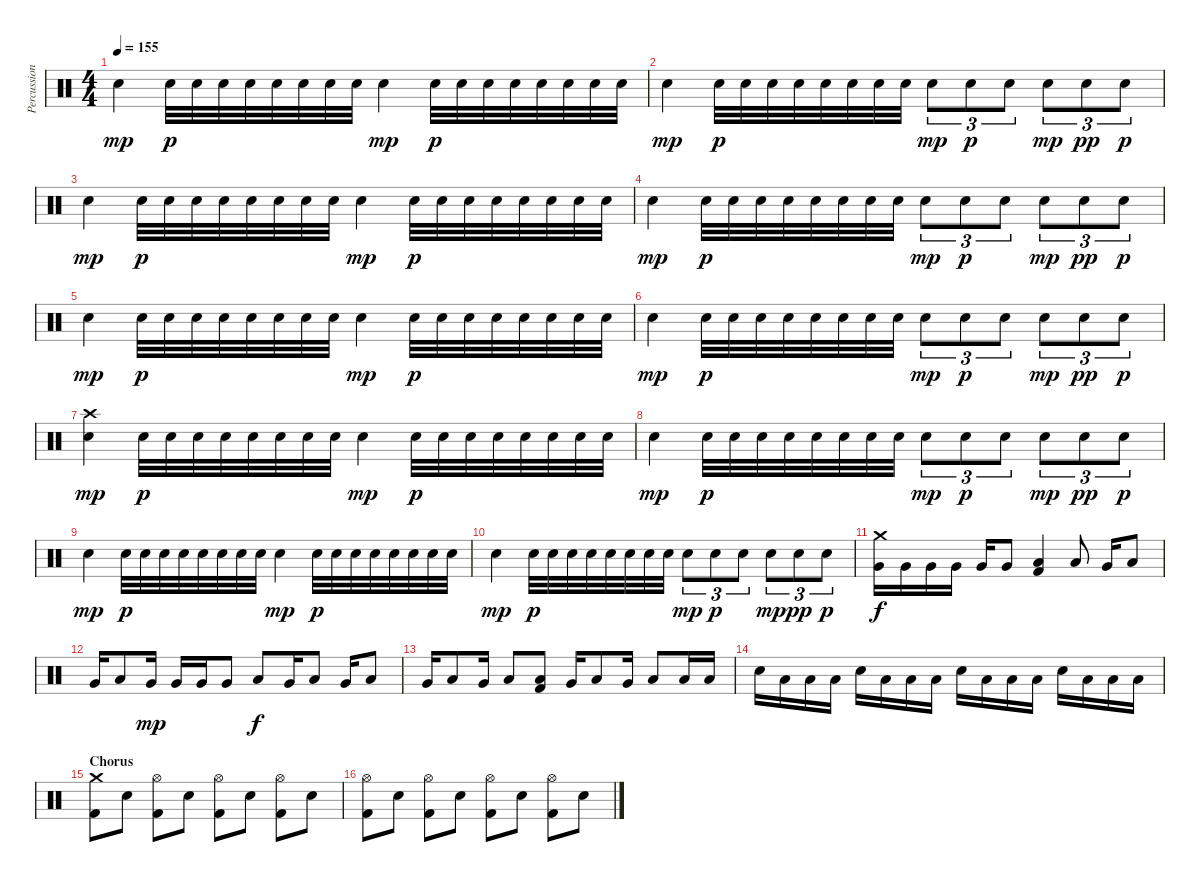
\track ("Percussion" "Percussion") {instrument percussion}
\staff {score}
\articulation defaults
\ts (4 4)
\tempo 155
\clef neutral
\ks c "Electric Snare (hit)".4{dy mp} "Electric Snare (hit)".32{dy p} "Electric Snare (hit)".32 "Electric Snare (hit)".32 "Electric Snare (hit)".32 "Electric Snare (hit)".32 "Electric Snare (hit)".32 "Electric Snare (hit)".32 "Electric Snare (hit)".32 "Electric Snare (hit)".4{dy mp} "Electric Snare (hit)".32{dy p} "Electric Snare (hit)".32 "Electric Snare (hit)".32 "Electric Snare (hit)".32 "Electric Snare (hit)".32 "Electric Snare (hit)".32 "Electric Snare (hit)".32 "Electric Snare (hit)".32
|
"Electric Snare (hit)".4{dy mp} "Electric Snare (hit)".32{dy p} "Electric Snare (hit)".32 "Electric Snare (hit)".32 "Electric Snare (hit)".32 "Electric Snare (hit)".32 "Electric Snare (hit)".32 "Electric Snare (hit)".32 "Electric Snare (hit)".32 "Electric Snare (hit)".8{tu (3 2) dy mp} "Electric Snare (hit)".8{tu (3 2) dy p} "Electric Snare (hit)".8{tu (3 2)} "Electric Snare (hit)".8{tu (3 2) dy mp} "Electric Snare (hit)".8{tu (3 2) dy pp} "Electric Snare (hit)".8{tu (3 2) dy p} |
"Electric Snare (hit)".4{dy mp} "Electric Snare (hit)".32{dy p} "Electric Snare (hit)".32 "Electric Snare (hit)".32 "Electric Snare (hit)".32 "Electric Snare (hit)".32 "Electric Snare (hit)".32 "Electric Snare (hit)".32 "Electric Snare (hit)".32 "Electric Snare (hit)".4{dy mp} "Electric Snare (hit)".32{dy p} "Electric Snare (hit)".32 "Electric Snare (hit)".32 "Electric Snare (hit)".32 "Electric Snare (hit)".32 "Electric Snare (hit)".32 "Electric Snare (hit)".32 "Electric Snare (hit)".32 |
"Electric Snare (hit)".4{dy mp} "Electric Snare (hit)".32{dy p} "Electric Snare (hit)".32 "Electric Snare (hit)".32 "Electric Snare (hit)".32 "Electric Snare (hit)".32 "Electric Snare (hit)".32 "Electric Snare (hit)".32 "Electric Snare (hit)".32 "Electric Snare (hit)".8{tu (3 2) dy mp} "Electric Snare (hit)".8{tu (3 2) dy p} "Electric Snare (hit)".8{tu (3 2)} "Electric Snare (hit)".8{tu (3 2) dy mp} "Electric Snare (hit)".8{tu (3 2) dy pp} "Electric Snare (hit)".8{tu (3 2) dy p} |
"Electric Snare (hit)".4{dy mp} "Electric Snare (hit)".32{dy p} "Electric Snare (hit)".32 "Electric Snare (hit)".32 "Electric Snare (hit)".32 "Electric Snare (hit)".32 "Electric Snare (hit)".32 "Electric Snare (hit)".32 "Electric Snare (hit)".32 "Electric Snare (hit)".4{dy mp} "Electric Snare (hit)".32{dy p} "Electric Snare (hit)".32 "Electric Snare (hit)".32 "Electric Snare (hit)".32 "Electric Snare (hit)".32 "Electric Snare (hit)".32 "Electric Snare (hit)".32 "Electric Snare (hit)".32 |
"Electric Snare (hit)".4{dy mp} "Electric Snare (hit)".32{dy p} "Electric Snare (hit)".32 "Electric Snare (hit)".32 "Electric Snare (hit)".32 "Electric Snare (hit)".32 "Electric Snare (hit)".32 "Electric Snare (hit)".32 "Electric Snare (hit)".32 "Electric Snare (hit)".8{tu (3 2) dy mp} "Electric Snare (hit)".8{tu (3 2) dy p} "Electric Snare (hit)".8{tu (3 2)} "Electric Snare (hit)".8{tu (3 2) dy mp} "Electric Snare (hit)".8{tu (3 2) dy pp} "Electric Snare (hit)".8{tu (3 2) dy p} |
("Crash high (hit)" "Electric Snare (hit)").4{dy mp} "Electric Snare (hit)".32{dy p} "Electric Snare (hit)".32 "Electric Snare (hit)".32 "Electric Snare (hit)".32 "Electric Snare (hit)".32 "Electric Snare (hit)".32 "Electric Snare (hit)".32 "Electric Snare (hit)".32 "Electric Snare (hit)".4{dy mp} "Electric Snare (hit)".32{dy p} "Electric Snare (hit)".32 "Electric Snare (hit)".32 "Electric Snare (hit)".32 "Electric Snare (hit)".32 "Electric Snare (hit)".32 "Electric Snare (hit)".32 "Electric Snare (hit)".32 |
"Electric Snare (hit)".4{dy mp} "Electric Snare (hit)".32{dy p} "Electric Snare (hit)".32 "Electric Snare (hit)".32 "Electric Snare (hit)".32 "Electric Snare (hit)".32 "Electric Snare (hit)".32 "Electric Snare (hit)".32 "Electric Snare (hit)".32 "Electric Snare (hit)".8{tu (3 2) dy mp} "Electric Snare (hit)".8{tu (3 2) dy p} "Electric Snare (hit)".8{tu (3 2)} "Electric Snare (hit)".8{tu (3 2) dy mp} "Electric Snare (hit)".8{tu (3 2) dy pp} "Electric Snare (hit)".8{tu (3 2) dy p} |
"Electric Snare (hit)".4{dy mp} "Electric Snare (hit)".32{dy p} "Electric Snare (hit)".32 "Electric Snare (hit)".32 "Electric Snare (hit)".32 "Electric Snare (hit)".32 "Electric Snare (hit)".32 "Electric Snare (hit)".32 "Electric Snare (hit)".32 "Electric Snare (hit)".4{dy mp} "Electric Snare (hit)".32{dy p} "Electric Snare (hit)".32 "Electric Snare (hit)".32 "Electric Snare (hit)".32 "Electric Snare (hit)".32 "Electric Snare (hit)".32 "Electric Snare (hit)".32 "Electric Snare (hit)".32 |
"Electric Snare (hit)".4{dy mp} "Electric Snare (hit)".32{dy p} "Electric Snare (hit)".32 "Electric Snare (hit)".32 "Electric Snare (hit)".32 "Electric Snare (hit)".32 "Electric Snare (hit)".32 "Electric Snare (hit)".32 "Electric Snare (hit)".32 "Electric Snare (hit)".8{tu (3 2) dy mp} "Electric Snare (hit)".8{tu (3 2) dy p} "Electric Snare (hit)".8{tu (3 2)} "Electric Snare (hit)".8{tu (3 2) dy mp} "Electric Snare (hit)".8{tu (3 2) dy pp} "Electric Snare (hit)".8{tu (3 2) dy p} |
("Crash medium (hit)" "Very Low Tom (hit)").16{dy f} "Very Low Tom (hit)".16 "Very Low Tom (hit)".16 "Very Low Tom (hit)".16 "Very Low Tom (hit)".16 "Very Low Tom (hit)".8 ("Low Floor Tom (hit)" "Kick (hit) 2").4 "Low Tom (hit)".8 "Very Low Tom (hit)".16 "Low Tom (hit)".8 |
"Very Low Tom (hit)".16 "Low Tom (hit)".8 "Very Low Tom (hit)".16{dy mp} "Very Low Tom (hit)".16 "Very Low Tom (hit)".16 "Very Low Tom (hit)".8 "Low Tom (hit)".8{dy f} "Very Low Tom (hit)".16 "Low Tom (hit)".8 "Very Low Tom (hit)".16 "Low Tom (hit)".8 |
"Very Low Tom (hit)".16 "Low Tom (hit)".8 "Very Low Tom (hit)".16 "Low Tom (hit)".8 ("Low Floor Tom (hit)" "Kick (hit) 2").8 "Very Low Tom (hit)".16 "Low Tom (hit)".8 "Very Low Tom (hit)".16 "Low Tom (hit)".8 "Low Tom (hit)".16 "Low Tom (hit)".16 |
"Electric Snare (hit)".16 "Low Tom (hit)".16 "Low Tom (hit)".16 "Low Tom (hit)".16 "Electric Snare (hit)".16 "Low Tom (hit)".16 "Low Tom (hit)".16 "Low Tom (hit)".16 "Electric Snare (hit)".16 "Low Tom (hit)".16 "Low Tom (hit)".16 "Low Tom (hit)".16 "Electric Snare (hit)".16 "Low Tom (hit)".16 "Low Tom (hit)".16 "Low Tom (hit)".16 |
\section ("" "Chorus")
("Crash medium (hit)" "Kick (hit) 2").8 "Electric Snare (hit)".8 ("Hi-Hat (open)" "Kick (hit) 2").8 "Electric Snare (hit)".8 ("Hi-Hat (open)" "Kick (hit) 2").8 "Electric Snare (hit)".8 ("Hi-Hat (open)" "Kick (hit) 2").8 "Electric Snare (hit)".8 |
("Hi-Hat (open)" "Kick (hit) 2").8 "Electric Snare (hit)".8 ("Hi-Hat (open)" "Kick (hit) 2").8 "Electric Snare (hit)".8 ("Hi-Hat (open)" "Kick (hit) 2").8 "Electric Snare (hit)".8 ("Hi-Hat (open)" "Kick (hit) 2").8 "Electric Snare (hit)".8
